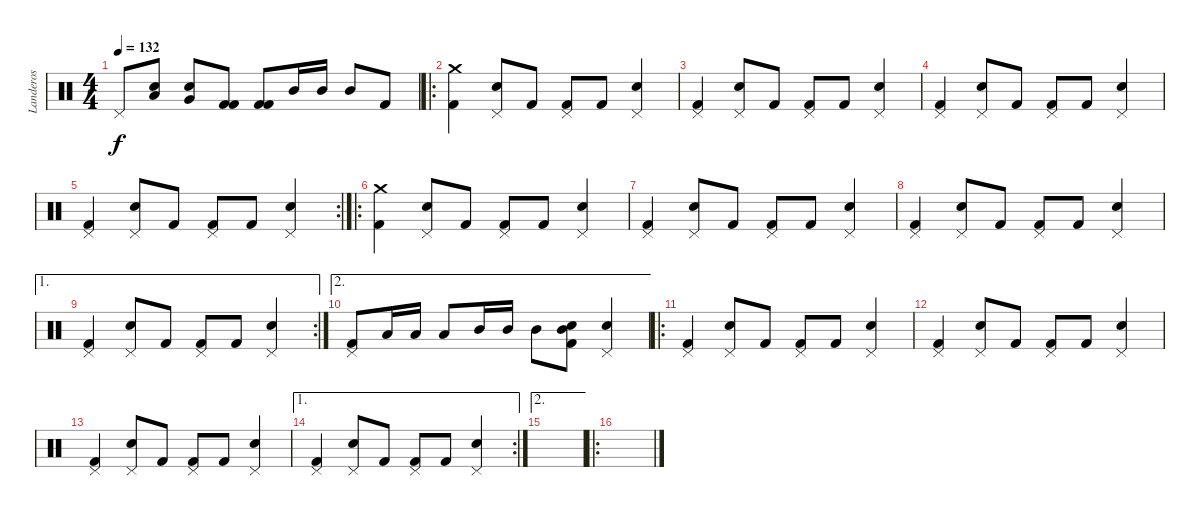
\track ("Landeros" "Landeros") {instrument percussion}
\staff {score}
\articulation defaults
\ts (4 4)
\tempo 132
\clef neutral
\ks c "Pedal Hi-Hat (hit)".8{dy f}
("Low Floor Tom (hit)" "Electric Snare (hit)").8 ("Very Low Tom (hit)" "Electric Snare (hit)").8 ("Kick (hit) 2" "Kick (hit) 2").8 ("Kick (hit) 2" "Kick (hit) 2").8 "Mid Tom (hit)".16 "Mid Tom (hit)".16 "Mid Tom (hit)".8 "Kick (hit) 2".8 |
\ro
("Kick (hit) 2" "Crash medium (hit)").4 ("Electric Snare (hit)" "Pedal Hi-Hat (hit)").8 "Kick (hit) 2".8 ("Kick (hit) 2" "Pedal Hi-Hat (hit)").8 "Kick (hit) 2".8 ("Electric Snare (hit)" "Pedal Hi-Hat (hit)").4 |
("Kick (hit) 2" "Pedal Hi-Hat (hit)").4 ("Electric Snare (hit)" "Pedal Hi-Hat (hit)").8 "Kick (hit) 2".8 ("Kick (hit) 2" "Pedal Hi-Hat (hit)").8 "Kick (hit) 2".8 ("Electric Snare (hit)" "Pedal Hi-Hat (hit)").4 |
("Kick (hit) 2" "Pedal Hi-Hat (hit)").4 ("Electric Snare (hit)" "Pedal Hi-Hat (hit)").8 "Kick (hit) 2".8 ("Kick (hit) 2" "Pedal Hi-Hat (hit)").8 "Kick (hit) 2".8 ("Electric Snare (hit)" "Pedal Hi-Hat (hit)").4 |
\rc 2
("Kick (hit) 2" "Pedal Hi-Hat (hit)").4 ("Electric Snare (hit)" "Pedal Hi-Hat (hit)").8 "Kick (hit) 2".8 ("Kick (hit) 2" "Pedal Hi-Hat (hit)").8 "Kick (hit) 2".8 ("Electric Snare (hit)" "Pedal Hi-Hat (hit)").4 |
\ro
("Kick (hit) 2" "Crash medium (hit)").4 ("Electric Snare (hit)" "Pedal Hi-Hat (hit)").8 "Kick (hit) 2".8 ("Kick (hit) 2" "Pedal Hi-Hat (hit)").8 "Kick (hit) 2".8 ("Electric Snare (hit)" "Pedal Hi-Hat (hit)").4 |
("Kick (hit) 2" "Pedal Hi-Hat (hit)").4 ("Electric Snare (hit)" "Pedal Hi-Hat (hit)").8 "Kick (hit) 2".8 ("Kick (hit) 2" "Pedal Hi-Hat (hit)").8 "Kick (hit) 2".8 ("Electric Snare (hit)" "Pedal Hi-Hat (hit)").4 |
("Kick (hit) 2" "Pedal Hi-Hat (hit)").4 ("Electric Snare (hit)" "Pedal Hi-Hat (hit)").8 "Kick (hit) 2".8 ("Kick (hit) 2" "Pedal Hi-Hat (hit)").8 "Kick (hit) 2".8 ("Electric Snare (hit)" "Pedal Hi-Hat (hit)").4 |
\ae 1
\rc 2
("Kick (hit) 2" "Pedal Hi-Hat (hit)").4 ("Electric Snare (hit)" "Pedal Hi-Hat (hit)").8 "Kick (hit) 2".8 ("Kick (hit) 2" "Pedal Hi-Hat (hit)").8 "Kick (hit) 2".8 ("Electric Snare (hit)" "Pedal Hi-Hat (hit)").4 |
\ae 2
("Kick (hit) 2" "Pedal Hi-Hat (hit)").8 "Low Tom (hit)".16 "Low Tom (hit)".16 "Low Tom (hit)".8 "Mid Tom (hit)".16 "Mid Tom (hit)".16 "Mid Tom (hit)".8 ("Kick (hit) 2" "Electric Snare (hit)" "Mid Tom (hit)").8 ("Electric Snare (hit)" "Pedal Hi-Hat (hit)").4 |
\ro
("Kick (hit) 2" "Pedal Hi-Hat (hit)").4 ("Electric Snare (hit)" "Pedal Hi-Hat (hit)").8 "Kick (hit) 2".8 ("Kick (hit) 2" "Pedal Hi-Hat (hit)").8 "Kick (hit) 2".8 ("Electric Snare (hit)" "Pedal Hi-Hat (hit)").4 |
("Kick (hit) 2" "Pedal Hi-Hat (hit)").4 ("Electric Snare (hit)" "Pedal Hi-Hat (hit)").8 "Kick (hit) 2".8 ("Kick (hit) 2" "Pedal Hi-Hat (hit)").8 "Kick (hit) 2".8 ("Electric Snare (hit)" "Pedal Hi-Hat (hit)").4 |
("Kick (hit) 2" "Pedal Hi-Hat (hit)").4 ("Electric Snare (hit)" "Pedal Hi-Hat (hit)").8 "Kick (hit) 2".8 ("Kick (hit) 2" "Pedal Hi-Hat (hit)").8 "Kick (hit) 2".8 ("Electric Snare (hit)" "Pedal Hi-Hat (hit)").4 |
\ae 1
\rc 2
("Kick (hit) 2" "Pedal Hi-Hat (hit)").4 ("Electric Snare (hit)" "Pedal Hi-Hat (hit)").8 "Kick (hit) 2".8 ("Kick (hit) 2" "Pedal Hi-Hat (hit)").8 "Kick (hit) 2".8 ("Electric Snare (hit)" "Pedal Hi-Hat (hit)").4 |
\ae 2
|
\ro
